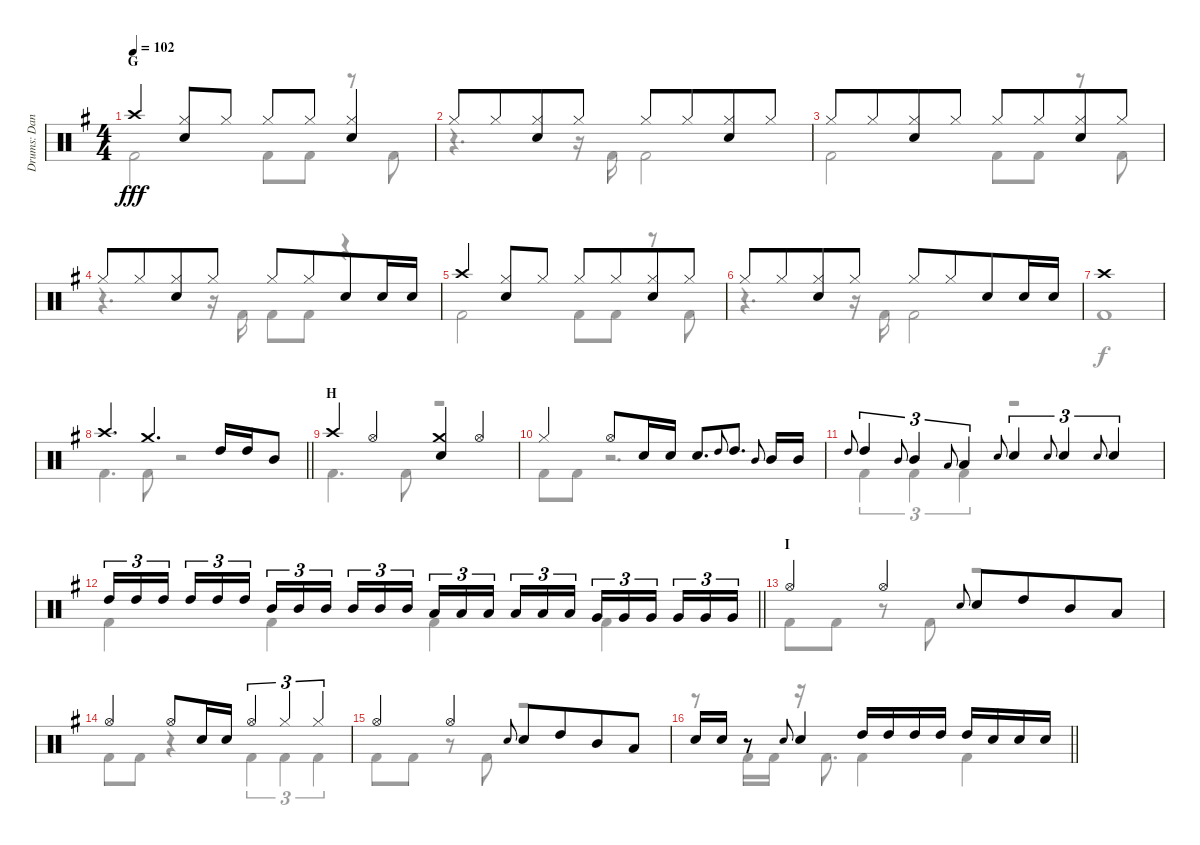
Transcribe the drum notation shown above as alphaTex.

\track ("Drums: Dana" "Drums: Dan") {instrument percussion}
\staff {score}
\articulation defaults
\voice
\ts (4 4)
\section ("" "G")
\tempo 102
\clef neutral
\ks g "Crash high (hit)".4{dy fff beam merge}
("Hi-Hat (closed)" "Snare (hit) 2").8 "Hi-Hat (closed)".8 "Hi-Hat (closed)".8 "Hi-Hat (closed)".8{beam merge} ("Hi-Hat (closed)" "Snare (hit) 2").4 |
"Hi-Hat (closed)".8 "Hi-Hat (closed)".8{beam merge} ("Hi-Hat (closed)" "Snare (hit) 2").8 "Hi-Hat (closed)".8 "Hi-Hat (closed)".8 "Hi-Hat (closed)".8{beam merge} ("Hi-Hat (closed)" "Snare (hit) 2").8 "Hi-Hat (closed)".8 |
"Hi-Hat (closed)".8 "Hi-Hat (closed)".8{beam merge} ("Hi-Hat (closed)" "Snare (hit) 2").8 "Hi-Hat (closed)".8 "Hi-Hat (closed)".8 "Hi-Hat (closed)".8{beam merge} ("Hi-Hat (closed)" "Snare (hit) 2").8 "Hi-Hat (closed)".8 |
"Hi-Hat (closed)".8 "Hi-Hat (closed)".8{beam merge} ("Hi-Hat (closed)" "Snare (hit) 2").8 "Hi-Hat (closed)".8 "Hi-Hat (closed)".8 "Hi-Hat (closed)".8{beam merge} "Snare (hit) 2".8 "Snare (hit) 2".16 "Snare (hit) 2".16 |
"Crash high (hit)".4{beam merge} ("Hi-Hat (closed)" "Snare (hit) 2").8 "Hi-Hat (closed)".8 "Hi-Hat (closed)".8 "Hi-Hat (closed)".8{beam merge} ("Hi-Hat (closed)" "Snare (hit) 2").8 "Hi-Hat (closed)".8 |
"Hi-Hat (closed)".8 "Hi-Hat (closed)".8{beam merge} ("Hi-Hat (closed)" "Snare (hit) 2").8 "Hi-Hat (closed)".8 "Hi-Hat (closed)".8 "Hi-Hat (closed)".8{beam merge} "Snare (hit) 2".8 "Snare (hit) 2".16 "Snare (hit) 2".16 |
"Crash high (hit)".1 |
\barLineRight lightlight "Crash high (hit)".4{d} "Crash medium (hit)".4{d} "High Tom (hit)".16 "High Tom (hit)".16 "Mid Tom (hit)".8
|
\section ("" "H")
"Crash high (hit)".4 "Hi-Hat (open)".4 ("Crash medium (hit)" "Snare (hit) 2").4 "Hi-Hat (open)".4 |
"Hi-Hat (closed)".4 "Hi-Hat (open)".8 "Snare (hit) 2".16 "Snare (hit) 2".16 "Snare (hit) 2".8{d} "High Tom (hit)".8{gr onbeat} "High Tom (hit)".8{d} "Mid Tom (hit)".8{gr onbeat} "Mid Tom (hit)".16 "Mid Tom (hit)".16 |
"High Tom (hit)".8{gr onbeat} "High Tom (hit)".4{tu (3 2)} "Mid Tom (hit)".8{gr onbeat} "Mid Tom (hit)".4{tu (3 2)} "Low Tom (hit)".8{gr onbeat} "Low Tom (hit)".4{tu (3 2)} "Electric Snare (hit)".8{gr onbeat} "Snare (hit) 2".4{tu (3 2)} "Electric Snare (hit)".8{gr onbeat} "Snare (hit) 2".4{tu (3 2)} "Electric Snare (hit)".8{gr onbeat} "Snare (hit) 2".4{tu (3 2)} |
\barLineRight lightlight "High Tom (hit)".16{tu (3 2)} "High Tom (hit)".16{tu (3 2)} "High Tom (hit)".16{tu (3 2) beam splitsecondary} "High Tom (hit)".16{tu (3 2)} "High Tom (hit)".16{tu (3 2)} "High Tom (hit)".16{tu (3 2)} "Mid Tom (hit)".16{tu (3 2)} "Mid Tom (hit)".16{tu (3 2)} "Mid Tom (hit)".16{tu (3 2) beam splitsecondary} "Mid Tom (hit)".16{tu (3 2)} "Mid Tom (hit)".16{tu (3 2)} "Mid Tom (hit)".16{tu (3 2)} "Low Tom (hit)".16{tu (3 2)} "Low Tom (hit)".16{tu (3 2)} "Low Tom (hit)".16{tu (3 2) beam splitsecondary} "Low Tom (hit)".16{tu (3 2)} "Low Tom (hit)".16{tu (3 2)} "Low Tom (hit)".16{tu (3 2)} "Very Low Tom (hit)".16{tu (3 2)} "Very Low Tom (hit)".16{tu (3 2)} "Very Low Tom (hit)".16{tu (3 2) beam splitsecondary} "Very Low Tom (hit)".16{tu (3 2)} "Very Low Tom (hit)".16{tu (3 2)} "Very Low Tom (hit)".16{tu (3 2)}
|
\section ("" "I")
"Hi-Hat (open)".4 "Hi-Hat (open)".4 "Electric Snare (hit)".8{gr onbeat} "Snare (hit) 2".8 "High Tom (hit)".8{beam merge} "Mid Tom (hit)".8 "Low Tom (hit)".8 |
"Hi-Hat (open)".4 "Hi-Hat (open)".8 "Snare (hit) 2".16 "Snare (hit) 2".16 "Hi-Hat (open)".4{tu (3 2)} "Hi-Hat (closed)".4{tu (3 2)} "Hi-Hat (closed)".4{tu (3 2)} |
"Hi-Hat (open)".4 "Hi-Hat (open)".4 "Electric Snare (hit)".8{gr onbeat} "Snare (hit) 2".8 "High Tom (hit)".8{beam merge} "Mid Tom (hit)".8 "Low Tom (hit)".8 |
\barLineRight lightlight "Snare (hit) 2".16 "Snare (hit) 2".16
r.8 "Electric Snare (hit)".8{gr onbeat} "Snare (hit) 2".4 "High Tom (hit)".16 "High Tom (hit)".16 "High Tom (hit)".16 "High Tom (hit)".16 "High Tom (hit)".16 "Snare (hit) 2".16 "Snare (hit) 2".16 "Snare (hit) 2".16
\voice
\clef neutral
\ottava regular
\simile none
\ks g "Kick (hit) 2".2{dy fff} "Kick (hit) 2".8 "Kick (hit) 2".8
r.8 "Kick (hit) 2".8 |
r.4{d} r.16 "Kick (hit) 2".16 "Kick (hit) 2".2 |
"Kick (hit) 2".2 "Kick (hit) 2".8 "Kick (hit) 2".8 r.8 "Kick (hit) 2".8 |
r.4{d} r.16 "Kick (hit) 2".16 "Kick (hit) 2".8 "Kick (hit) 2".8 r.4 |
"Kick (hit) 2".2 "Kick (hit) 2".8 "Kick (hit) 2".8 r.8 "Kick (hit) 2".8 |
r.4{d} r.16 "Kick (hit) 2".16 "Kick (hit) 2".2 |
"Kick (hit) 2".1{dy f} |
\barLineRight lightlight "Kick (hit) 2".4{d} "Kick (hit) 2".8
r.2 |
"Kick (hit) 2".4{d} "Kick (hit) 2".8 r.2 |
"Kick (hit) 2".8 "Kick (hit) 2".8 r.2{d} |
"Kick (hit) 2".4{tu (3 2)} "Kick (hit) 2".4{tu (3 2)} "Kick (hit) 2".4{tu (3 2)} r.2 |
\barLineRight lightlight "Kick (hit) 2".4 "Kick (hit) 2".4 "Kick (hit) 2".4 "Kick (hit) 2".4
|
"Kick (hit) 2".8 "Kick (hit) 2".8 r.8 "Kick (hit) 2".8 r.2 |
"Kick (hit) 2".8 "Kick (hit) 2".8 r.4 "Kick (hit) 2".4{tu (3 2)} "Kick (hit) 2".4{tu (3 2)} "Kick (hit) 2".4{tu (3 2)} |
"Kick (hit) 2".8 "Kick (hit) 2".8 r.8 "Kick (hit) 2".8 r.2 |
\barLineRight lightlight
r.8 "Kick (hit) 2".16 "Kick (hit) 2".16 r.16 "Kick (hit) 2".8{d} "Kick (hit) 2".4 "Kick (hit) 2".4
